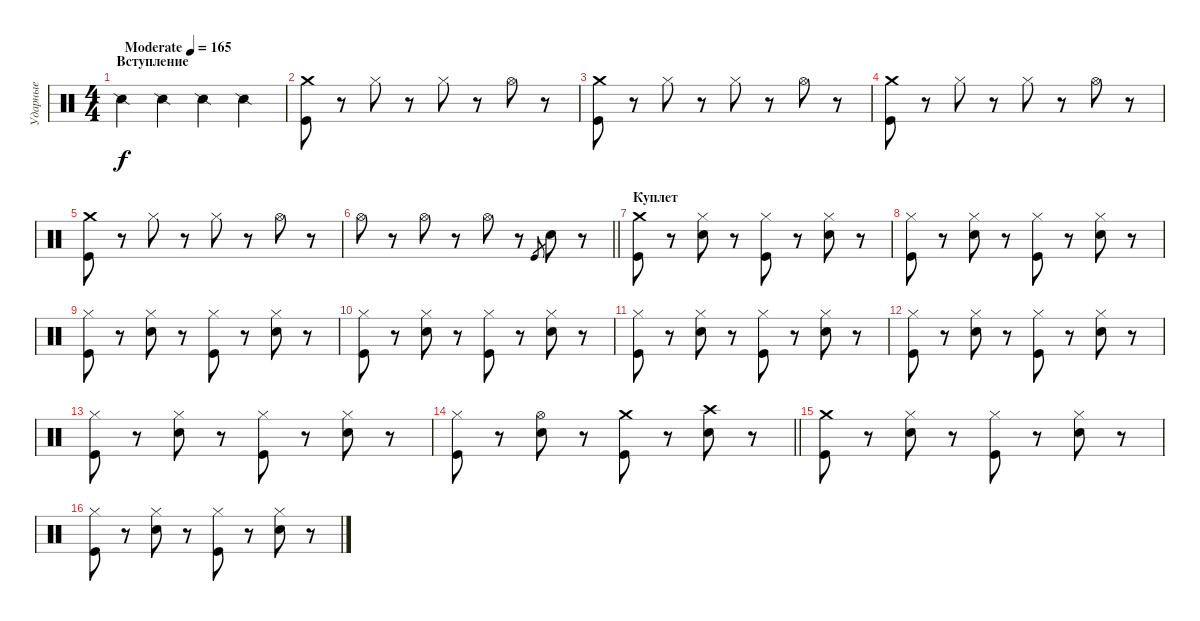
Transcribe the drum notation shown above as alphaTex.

\track ("Ударные" "Ударные") {instrument percussion}
\staff {score}
\articulation defaults
\ts (4 4)
\section ("" "Вступление")
\tempo (165 "Moderate")
\clef neutral
\ks c "Snare (side stick) 2".4{dy f} "Snare (side stick) 2".4 "Snare (side stick) 2".4 "Snare (side stick) 2".4
|
("Crash medium (hit)" "Kick (hit)").8 r.8 "Hi-Hat (closed)".8 r.8 "Hi-Hat (closed)".8 r.8 "Hi-Hat (open)".8 r.8 |
("Crash medium (hit)" "Kick (hit)").8 r.8 "Hi-Hat (closed)".8 r.8 "Hi-Hat (closed)".8 r.8 "Hi-Hat (open)".8 r.8 |
("Crash medium (hit)" "Kick (hit)").8 r.8 "Hi-Hat (closed)".8 r.8 "Hi-Hat (closed)".8 r.8 "Hi-Hat (open)".8 r.8 |
("Crash medium (hit)" "Kick (hit)").8 r.8 "Hi-Hat (closed)".8 r.8 "Hi-Hat (closed)".8 r.8 "Hi-Hat (open)".8 r.8 |
\barLineRight lightlight "Hi-Hat (open)".8
r.8 "Hi-Hat (open)".8 r.8 "Hi-Hat (open)".8 r.8 "Kick (hit)".8{gr} "Electric Snare (hit)".8 r.8 |
\section ("" "Куплет")
("Crash medium (hit)" "Kick (hit)").8 r.8 ("Hi-Hat (closed)" "Electric Snare (hit)").8 r.8 ("Hi-Hat (closed)" "Kick (hit)").8 r.8 ("Hi-Hat (closed)" "Electric Snare (hit)").8 r.8 |
("Hi-Hat (closed)" "Kick (hit)").8 r.8 ("Hi-Hat (closed)" "Electric Snare (hit)").8 r.8 ("Hi-Hat (closed)" "Kick (hit)").8 r.8 ("Hi-Hat (closed)" "Electric Snare (hit)").8 r.8 |
("Hi-Hat (closed)" "Kick (hit)").8 r.8 ("Hi-Hat (closed)" "Electric Snare (hit)").8 r.8 ("Hi-Hat (closed)" "Kick (hit)").8 r.8 ("Hi-Hat (closed)" "Electric Snare (hit)").8 r.8 |
("Hi-Hat (closed)" "Kick (hit)").8 r.8 ("Hi-Hat (closed)" "Electric Snare (hit)").8 r.8 ("Hi-Hat (closed)" "Kick (hit)").8 r.8 ("Hi-Hat (closed)" "Electric Snare (hit)").8 r.8 |
("Hi-Hat (closed)" "Kick (hit)").8 r.8 ("Hi-Hat (closed)" "Electric Snare (hit)").8 r.8 ("Hi-Hat (closed)" "Kick (hit)").8 r.8 ("Hi-Hat (closed)" "Electric Snare (hit)").8 r.8 |
("Hi-Hat (closed)" "Kick (hit)").8 r.8 ("Hi-Hat (closed)" "Electric Snare (hit)").8 r.8 ("Hi-Hat (closed)" "Kick (hit)").8 r.8 ("Hi-Hat (closed)" "Electric Snare (hit)").8 r.8 |
("Hi-Hat (closed)" "Kick (hit)").8 r.8 ("Hi-Hat (closed)" "Electric Snare (hit)").8 r.8 ("Hi-Hat (closed)" "Kick (hit)").8 r.8 ("Hi-Hat (closed)" "Electric Snare (hit)").8 r.8 |
\barLineRight lightlight
("Hi-Hat (closed)" "Kick (hit)").8 r.8 ("Hi-Hat (open)" "Electric Snare (hit)").8 r.8 ("Crash medium (hit)" "Kick (hit)").8 r.8 ("Crash high (hit)" "Electric Snare (hit)").8 r.8 |
\section ("" " ")
("Crash medium (hit)" "Kick (hit)").8 r.8 ("Hi-Hat (closed)" "Electric Snare (hit)").8 r.8 ("Hi-Hat (closed)" "Kick (hit)").8 r.8 ("Hi-Hat (closed)" "Electric Snare (hit)").8 r.8 |
("Hi-Hat (closed)" "Kick (hit)").8 r.8 ("Hi-Hat (closed)" "Electric Snare (hit)").8 r.8 ("Hi-Hat (closed)" "Kick (hit)").8 r.8 ("Hi-Hat (closed)" "Electric Snare (hit)").8 r.8
